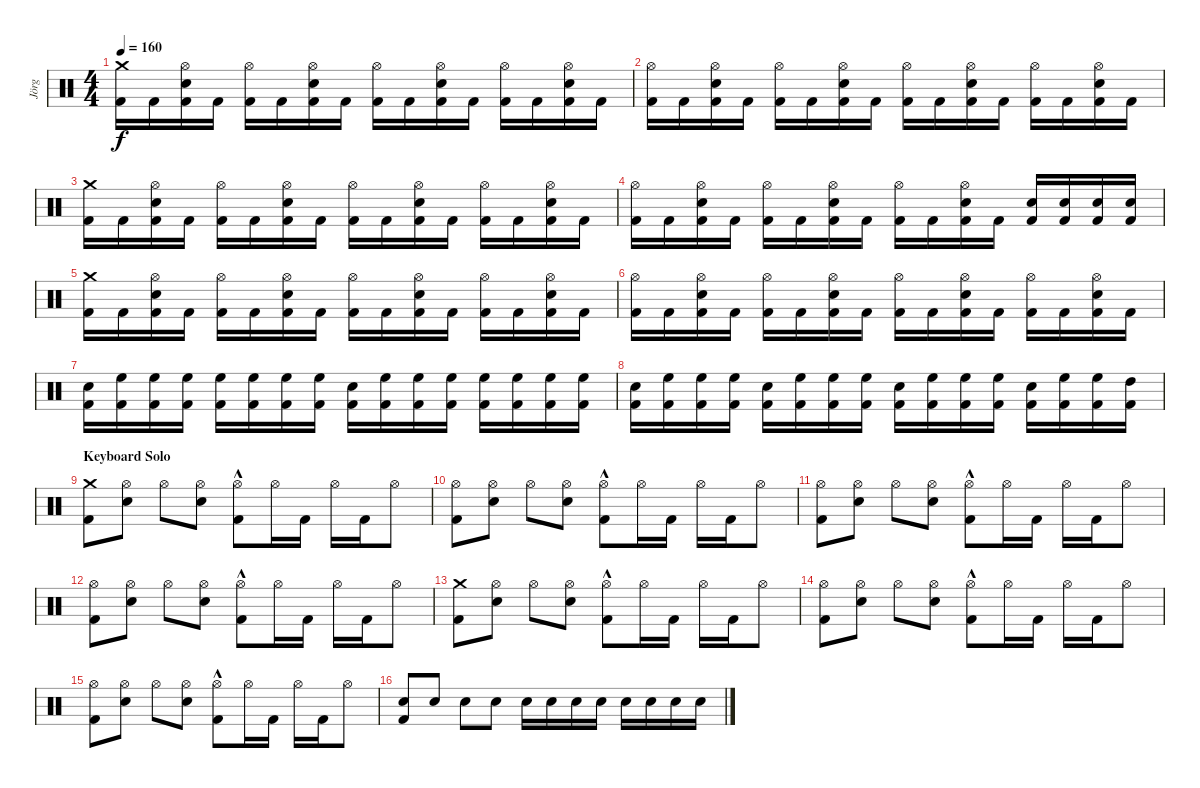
\track ("Jörg" "Jörg") {instrument percussion}
\staff {score}
\articulation defaults
\ts (4 4)
\tempo 160
\clef neutral
\ks c
("Crash medium (hit)" "Kick (hit) 2").16{dy f} "Kick (hit) 2".16 ("Snare (hit) 2" "Hi-Hat (open)" "Kick (hit) 2").16 "Kick (hit) 2".16 ("Hi-Hat (open)" "Kick (hit) 2").16 "Kick (hit) 2".16 ("Snare (hit) 2" "Hi-Hat (open)" "Kick (hit) 2").16 "Kick (hit) 2".16 ("Hi-Hat (open)" "Kick (hit) 2").16 "Kick (hit) 2".16 ("Snare (hit) 2" "Hi-Hat (open)" "Kick (hit) 2").16 "Kick (hit) 2".16 ("Hi-Hat (open)" "Kick (hit) 2").16 "Kick (hit) 2".16 ("Snare (hit) 2" "Hi-Hat (open)" "Kick (hit) 2").16 "Kick (hit) 2".16 |
("Hi-Hat (open)" "Kick (hit) 2").16 "Kick (hit) 2".16 ("Snare (hit) 2" "Hi-Hat (open)" "Kick (hit) 2").16 "Kick (hit) 2".16 ("Hi-Hat (open)" "Kick (hit) 2").16 "Kick (hit) 2".16 ("Snare (hit) 2" "Hi-Hat (open)" "Kick (hit) 2").16 "Kick (hit) 2".16 ("Hi-Hat (open)" "Kick (hit) 2").16 "Kick (hit) 2".16 ("Snare (hit) 2" "Hi-Hat (open)" "Kick (hit) 2").16 "Kick (hit) 2".16 ("Hi-Hat (open)" "Kick (hit) 2").16 "Kick (hit) 2".16 ("Snare (hit) 2" "Hi-Hat (open)" "Kick (hit) 2").16 "Kick (hit) 2".16 |
("Crash medium (hit)" "Kick (hit) 2").16 "Kick (hit) 2".16 ("Snare (hit) 2" "Hi-Hat (open)" "Kick (hit) 2").16 "Kick (hit) 2".16 ("Hi-Hat (open)" "Kick (hit) 2").16 "Kick (hit) 2".16 ("Snare (hit) 2" "Hi-Hat (open)" "Kick (hit) 2").16 "Kick (hit) 2".16 ("Hi-Hat (open)" "Kick (hit) 2").16 "Kick (hit) 2".16 ("Snare (hit) 2" "Hi-Hat (open)" "Kick (hit) 2").16 "Kick (hit) 2".16 ("Hi-Hat (open)" "Kick (hit) 2").16 "Kick (hit) 2".16 ("Snare (hit) 2" "Hi-Hat (open)" "Kick (hit) 2").16 "Kick (hit) 2".16 |
("Hi-Hat (open)" "Kick (hit) 2").16 "Kick (hit) 2".16 ("Snare (hit) 2" "Hi-Hat (open)" "Kick (hit) 2").16 "Kick (hit) 2".16 ("Hi-Hat (open)" "Kick (hit) 2").16 "Kick (hit) 2".16 ("Snare (hit) 2" "Hi-Hat (open)" "Kick (hit) 2").16 "Kick (hit) 2".16 ("Hi-Hat (open)" "Kick (hit) 2").16 "Kick (hit) 2".16 ("Snare (hit) 2" "Hi-Hat (open)" "Kick (hit) 2").16 "Kick (hit) 2".16 ("Snare (hit) 2" "Kick (hit) 2").16 ("Snare (hit) 2" "Kick (hit) 2").16 ("Snare (hit) 2" "Kick (hit) 2").16 ("Snare (hit) 2" "Kick (hit) 2").16 |
("Crash medium (hit)" "Kick (hit) 2").16 "Kick (hit) 2".16 ("Snare (hit) 2" "Hi-Hat (open)" "Kick (hit) 2").16 "Kick (hit) 2".16 ("Hi-Hat (open)" "Kick (hit) 2").16 "Kick (hit) 2".16 ("Snare (hit) 2" "Hi-Hat (open)" "Kick (hit) 2").16 "Kick (hit) 2".16 ("Hi-Hat (open)" "Kick (hit) 2").16 "Kick (hit) 2".16 ("Snare (hit) 2" "Hi-Hat (open)" "Kick (hit) 2").16 "Kick (hit) 2".16 ("Hi-Hat (open)" "Kick (hit) 2").16 "Kick (hit) 2".16 ("Snare (hit) 2" "Hi-Hat (open)" "Kick (hit) 2").16 "Kick (hit) 2".16 |
("Hi-Hat (open)" "Kick (hit) 2").16 "Kick (hit) 2".16 ("Snare (hit) 2" "Hi-Hat (open)" "Kick (hit) 2").16 "Kick (hit) 2".16 ("Hi-Hat (open)" "Kick (hit) 2").16 "Kick (hit) 2".16 ("Snare (hit) 2" "Hi-Hat (open)" "Kick (hit) 2").16 "Kick (hit) 2".16 ("Hi-Hat (open)" "Kick (hit) 2").16 "Kick (hit) 2".16 ("Snare (hit) 2" "Hi-Hat (open)" "Kick (hit) 2").16 "Kick (hit) 2".16 ("Hi-Hat (open)" "Kick (hit) 2").16 "Kick (hit) 2".16 ("Snare (hit) 2" "Hi-Hat (open)" "Kick (hit) 2").16 "Kick (hit) 2".16 |
("Snare (hit) 2" "Kick (hit) 2").16 ("High Floor Tom (hit)" "Kick (hit) 2").16 ("High Floor Tom (hit)" "Kick (hit) 2").16 ("High Floor Tom (hit)" "Kick (hit) 2").16 ("High Floor Tom (hit)" "Kick (hit) 2").16 ("High Floor Tom (hit)" "Kick (hit) 2").16 ("High Floor Tom (hit)" "Kick (hit) 2").16 ("High Floor Tom (hit)" "Kick (hit) 2").16 ("Snare (hit) 2" "Kick (hit) 2").16 ("High Floor Tom (hit)" "Kick (hit) 2").16 ("High Floor Tom (hit)" "Kick (hit) 2").16 ("High Floor Tom (hit)" "Kick (hit) 2").16 ("High Floor Tom (hit)" "Kick (hit) 2").16 ("High Floor Tom (hit)" "Kick (hit) 2").16 ("High Floor Tom (hit)" "Kick (hit) 2").16 ("High Floor Tom (hit)" "Kick (hit) 2").16 |
("Snare (hit) 2" "Kick (hit) 2").16 ("High Floor Tom (hit)" "Kick (hit) 2").16 ("High Floor Tom (hit)" "Kick (hit) 2").16 ("High Floor Tom (hit)" "Kick (hit) 2").16 ("Snare (hit) 2" "Kick (hit) 2").16 ("High Floor Tom (hit)" "Kick (hit) 2").16 ("High Floor Tom (hit)" "Kick (hit) 2").16 ("High Floor Tom (hit)" "Kick (hit) 2").16 ("Snare (hit) 2" "Kick (hit) 2").16 ("High Floor Tom (hit)" "Kick (hit) 2").16 ("High Floor Tom (hit)" "Kick (hit) 2").16 ("High Floor Tom (hit)" "Kick (hit) 2").16 ("Snare (hit) 2" "Kick (hit) 2").16 ("High Floor Tom (hit)" "Kick (hit) 2").16 ("High Floor Tom (hit)" "Kick (hit) 2").16 ("High Tom (hit)" "Kick (hit) 2").16 |
\section ("" "Keyboard Solo")
("Kick (hit) 2" "Crash medium (hit)").8 ("Snare (hit) 2" "Hi-Hat (open)").8 "Hi-Hat (open)".8 ("Snare (hit) 2" "Hi-Hat (open)").8 ("Kick (hit) 2"{hac} "Hi-Hat (open)").8 "Hi-Hat (open)".16 "Kick (hit) 2".16 "Hi-Hat (open)".16 "Kick (hit) 2".16 "Hi-Hat (open)".8 |
("Kick (hit) 2" "Hi-Hat (open)").8 ("Snare (hit) 2" "Hi-Hat (open)").8 "Hi-Hat (open)".8 ("Snare (hit) 2" "Hi-Hat (open)").8 ("Kick (hit) 2"{hac} "Hi-Hat (open)").8 "Hi-Hat (open)".16 "Kick (hit) 2".16 "Hi-Hat (open)".16 "Kick (hit) 2".16 "Hi-Hat (open)".8 |
("Kick (hit) 2" "Hi-Hat (open)").8 ("Snare (hit) 2" "Hi-Hat (open)").8 "Hi-Hat (open)".8 ("Snare (hit) 2" "Hi-Hat (open)").8 ("Kick (hit) 2"{hac} "Hi-Hat (open)").8 "Hi-Hat (open)".16 "Kick (hit) 2".16 "Hi-Hat (open)".16 "Kick (hit) 2".16 "Hi-Hat (open)".8 |
("Kick (hit) 2" "Hi-Hat (open)").8 ("Snare (hit) 2" "Hi-Hat (open)").8 "Hi-Hat (open)".8 ("Snare (hit) 2" "Hi-Hat (open)").8 ("Kick (hit) 2"{hac} "Hi-Hat (open)").8 "Hi-Hat (open)".16 "Kick (hit) 2".16 "Hi-Hat (open)".16 "Kick (hit) 2".16 "Hi-Hat (open)".8 |
("Kick (hit) 2" "Crash medium (hit)").8 ("Snare (hit) 2" "Hi-Hat (open)").8 "Hi-Hat (open)".8 ("Snare (hit) 2" "Hi-Hat (open)").8 ("Kick (hit) 2"{hac} "Hi-Hat (open)").8 "Hi-Hat (open)".16 "Kick (hit) 2".16 "Hi-Hat (open)".16 "Kick (hit) 2".16 "Hi-Hat (open)".8 |
("Kick (hit) 2" "Hi-Hat (open)").8 ("Snare (hit) 2" "Hi-Hat (open)").8 "Hi-Hat (open)".8 ("Snare (hit) 2" "Hi-Hat (open)").8 ("Kick (hit) 2"{hac} "Hi-Hat (open)").8 "Hi-Hat (open)".16 "Kick (hit) 2".16 "Hi-Hat (open)".16 "Kick (hit) 2".16 "Hi-Hat (open)".8 |
("Kick (hit) 2" "Hi-Hat (open)").8 ("Snare (hit) 2" "Hi-Hat (open)").8 "Hi-Hat (open)".8 ("Snare (hit) 2" "Hi-Hat (open)").8 ("Kick (hit) 2"{hac} "Hi-Hat (open)").8 "Hi-Hat (open)".16 "Kick (hit) 2".16 "Hi-Hat (open)".16 "Kick (hit) 2".16 "Hi-Hat (open)".8 |
("Snare (hit) 2" "Kick (hit) 2").8 "Snare (hit) 2".8 "Snare (hit) 2".8 "Snare (hit) 2".8 "Snare (hit) 2".16 "Snare (hit) 2".16 "Snare (hit) 2".16 "Snare (hit) 2".16 "Snare (hit) 2".16 "Snare (hit) 2".16 "Snare (hit) 2".16 "Snare (hit) 2".16
